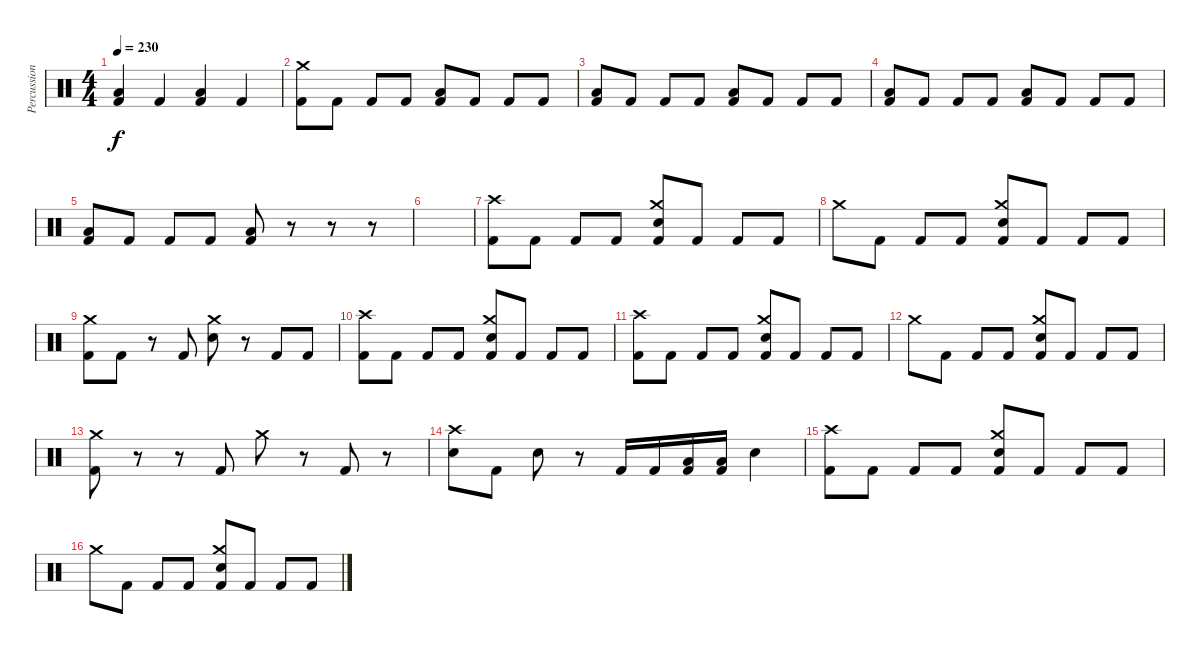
\track ("Percussions" "Percussion") {instrument percussion}
\staff {score}
\articulation defaults
\ts (4 4)
\tempo 230
\clef neutral
\ks c
("Kick (hit) 2" "Low Floor Tom (hit)").4{dy f} "Kick (hit) 2".4 ("Kick (hit) 2" "Low Floor Tom (hit)").4 "Kick (hit) 2".4 |
("Kick (hit) 2" "Crash medium (hit)").8 "Kick (hit) 2".8 "Kick (hit) 2".8 "Kick (hit) 2".8 ("Kick (hit) 2" "Low Floor Tom (hit)").8 "Kick (hit) 2".8 "Kick (hit) 2".8 "Kick (hit) 2".8 |
("Kick (hit) 2" "Low Floor Tom (hit)").8 "Kick (hit) 2".8 "Kick (hit) 2".8 "Kick (hit) 2".8 ("Kick (hit) 2" "Low Floor Tom (hit)").8 "Kick (hit) 2".8 "Kick (hit) 2".8 "Kick (hit) 2".8 |
("Kick (hit) 2" "Low Floor Tom (hit)").8 "Kick (hit) 2".8 "Kick (hit) 2".8 "Kick (hit) 2".8 ("Kick (hit) 2" "Low Floor Tom (hit)").8 "Kick (hit) 2".8 "Kick (hit) 2".8 "Kick (hit) 2".8 |
("Kick (hit) 2" "Low Floor Tom (hit)").8 "Kick (hit) 2".8 "Kick (hit) 2".8 "Kick (hit) 2".8 ("Kick (hit) 2" "Low Floor Tom (hit)").8 r.8 r.8 r.8 |
|
("Kick (hit) 2" "Crash high (hit)").8 "Kick (hit) 2".8 "Kick (hit) 2".8 "Kick (hit) 2".8 ("Kick (hit) 2" "Electric Snare (hit)" "Crash medium (hit)").8 "Kick (hit) 2".8 "Kick (hit) 2".8 "Kick (hit) 2".8 |
"Crash medium (hit)".8 "Kick (hit) 2".8 "Kick (hit) 2".8 "Kick (hit) 2".8 ("Kick (hit) 2" "Electric Snare (hit)" "Crash medium (hit)").8 "Kick (hit) 2".8 "Kick (hit) 2".8 "Kick (hit) 2".8 |
("Kick (hit) 2" "Crash medium (hit)").8 "Kick (hit) 2".8 r.8 "Kick (hit) 2".8 ("Electric Snare (hit)" "Crash medium (hit)").8 r.8 "Kick (hit) 2".8 "Kick (hit) 2".8 |
("Kick (hit) 2" "Crash high (hit)").8 "Kick (hit) 2".8 "Kick (hit) 2".8 "Kick (hit) 2".8 ("Kick (hit) 2" "Electric Snare (hit)" "Crash medium (hit)").8 "Kick (hit) 2".8 "Kick (hit) 2".8 "Kick (hit) 2".8 |
("Kick (hit) 2" "Crash high (hit)").8 "Kick (hit) 2".8 "Kick (hit) 2".8 "Kick (hit) 2".8 ("Kick (hit) 2" "Electric Snare (hit)" "Crash medium (hit)").8 "Kick (hit) 2".8 "Kick (hit) 2".8 "Kick (hit) 2".8 |
"Crash medium (hit)".8 "Kick (hit) 2".8 "Kick (hit) 2".8 "Kick (hit) 2".8 ("Kick (hit) 2" "Electric Snare (hit)" "Crash medium (hit)").8 "Kick (hit) 2".8 "Kick (hit) 2".8 "Kick (hit) 2".8 |
("Kick (hit) 2" "Crash medium (hit)").8 r.8 r.8 "Kick (hit) 2".8 "Crash medium (hit)".8 r.8 "Kick (hit) 2".8 r.8 |
("Electric Snare (hit)" "Crash high (hit)").8 "Kick (hit) 2".8 "Electric Snare (hit)".8 r.8 "Kick (hit) 2".16 "Kick (hit) 2".16 ("Kick (hit) 2" "Low Tom (hit)").16 ("Kick (hit) 2" "Low Tom (hit)").16 "Electric Snare (hit)".4 |
("Kick (hit) 2" "Crash high (hit)").8 "Kick (hit) 2".8 "Kick (hit) 2".8 "Kick (hit) 2".8 ("Kick (hit) 2" "Electric Snare (hit)" "Crash medium (hit)").8 "Kick (hit) 2".8 "Kick (hit) 2".8 "Kick (hit) 2".8 |
"Crash medium (hit)".8 "Kick (hit) 2".8 "Kick (hit) 2".8 "Kick (hit) 2".8 ("Kick (hit) 2" "Electric Snare (hit)" "Crash medium (hit)").8 "Kick (hit) 2".8 "Kick (hit) 2".8 "Kick (hit) 2".8
